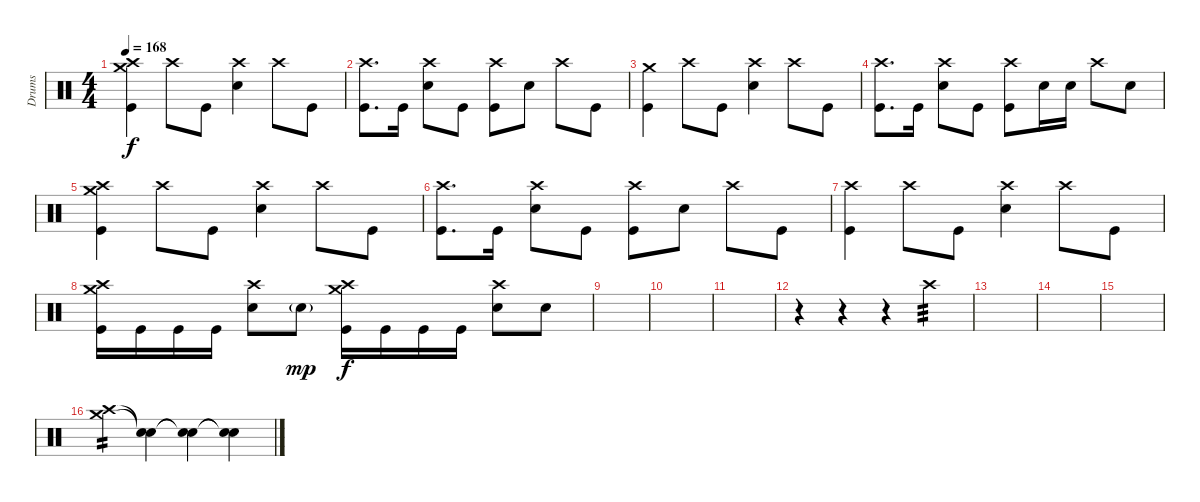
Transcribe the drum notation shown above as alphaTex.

\track ("Drums" "Drums") {instrument percussion}
\staff {score}
\articulation defaults
\ts (4 4)
\tempo 168
\clef neutral
\ks c
("Crash high (hit)" "Crash medium (hit)" "Kick (hit)").4{dy f} "Crash high (hit)".8 "Kick (hit)".8 ("Crash high (hit)" "Snare (hit) 2").4 "Crash high (hit)".8 "Kick (hit)".8 |
("Crash high (hit)" "Kick (hit)").8{d} "Kick (hit)".16 ("Crash high (hit)" "Snare (hit) 2").8 "Kick (hit)".8 ("Crash high (hit)" "Kick (hit)").8 "Snare (hit) 2".8 "Crash high (hit)".8 "Kick (hit)".8 |
("Crash medium (hit)" "Kick (hit)").4 "Crash high (hit)".8 "Kick (hit)".8 ("Crash high (hit)" "Snare (hit) 2").4 "Crash high (hit)".8 "Kick (hit)".8 |
("Crash high (hit)" "Kick (hit)").8{d} "Kick (hit)".16 ("Crash high (hit)" "Snare (hit) 2").8 "Kick (hit)".8 ("Crash high (hit)" "Kick (hit)").8 "Snare (hit) 2".16 "Snare (hit) 2".16 "Crash high (hit)".8 "Snare (hit) 2".8 |
("Crash high (hit)" "Crash medium (hit)" "Kick (hit)").4 "Crash high (hit)".8 "Kick (hit)".8 ("Crash high (hit)" "Snare (hit) 2").4 "Crash high (hit)".8 "Kick (hit)".8 |
("Crash high (hit)" "Kick (hit)").8{d} "Kick (hit)".16 ("Crash high (hit)" "Snare (hit) 2").8 "Kick (hit)".8 ("Crash high (hit)" "Kick (hit)").8 "Snare (hit) 2".8 "Crash high (hit)".8 "Kick (hit)".8 |
("Crash high (hit)" "Kick (hit)").4 "Crash high (hit)".8 "Kick (hit)".8 ("Crash high (hit)" "Snare (hit) 2").4 "Crash high (hit)".8 "Kick (hit)".8 |
("Crash high (hit)" "Crash medium (hit)" "Kick (hit)").16 "Kick (hit)".16 "Kick (hit)".16 "Kick (hit)".16 ("Crash high (hit)" "Snare (hit) 2").8 "Snare (hit) 2"{g}.8{dy mp} ("Crash high (hit)" "Crash medium (hit)" "Kick (hit)").16{dy f} "Kick (hit)".16 "Kick (hit)".16 "Kick (hit)".16 ("Crash high (hit)" "Snare (hit) 2").8 "Snare (hit) 2".8 |
|
|
|
r.4 r.4 r.4{volume 2} "Crash high (hit)".4{tp 3 volume 4} |
|
|
|
("Crash high (hit)" "Crash medium (hit)").4{tp 2 volume 13} ("Snare (hit)"{t} "Snare (hit)"{t}).4 ("Snare (hit)"{t} "Snare (hit)"{t}).4 ("Snare (hit)"{t} "Snare (hit)"{t}).4
